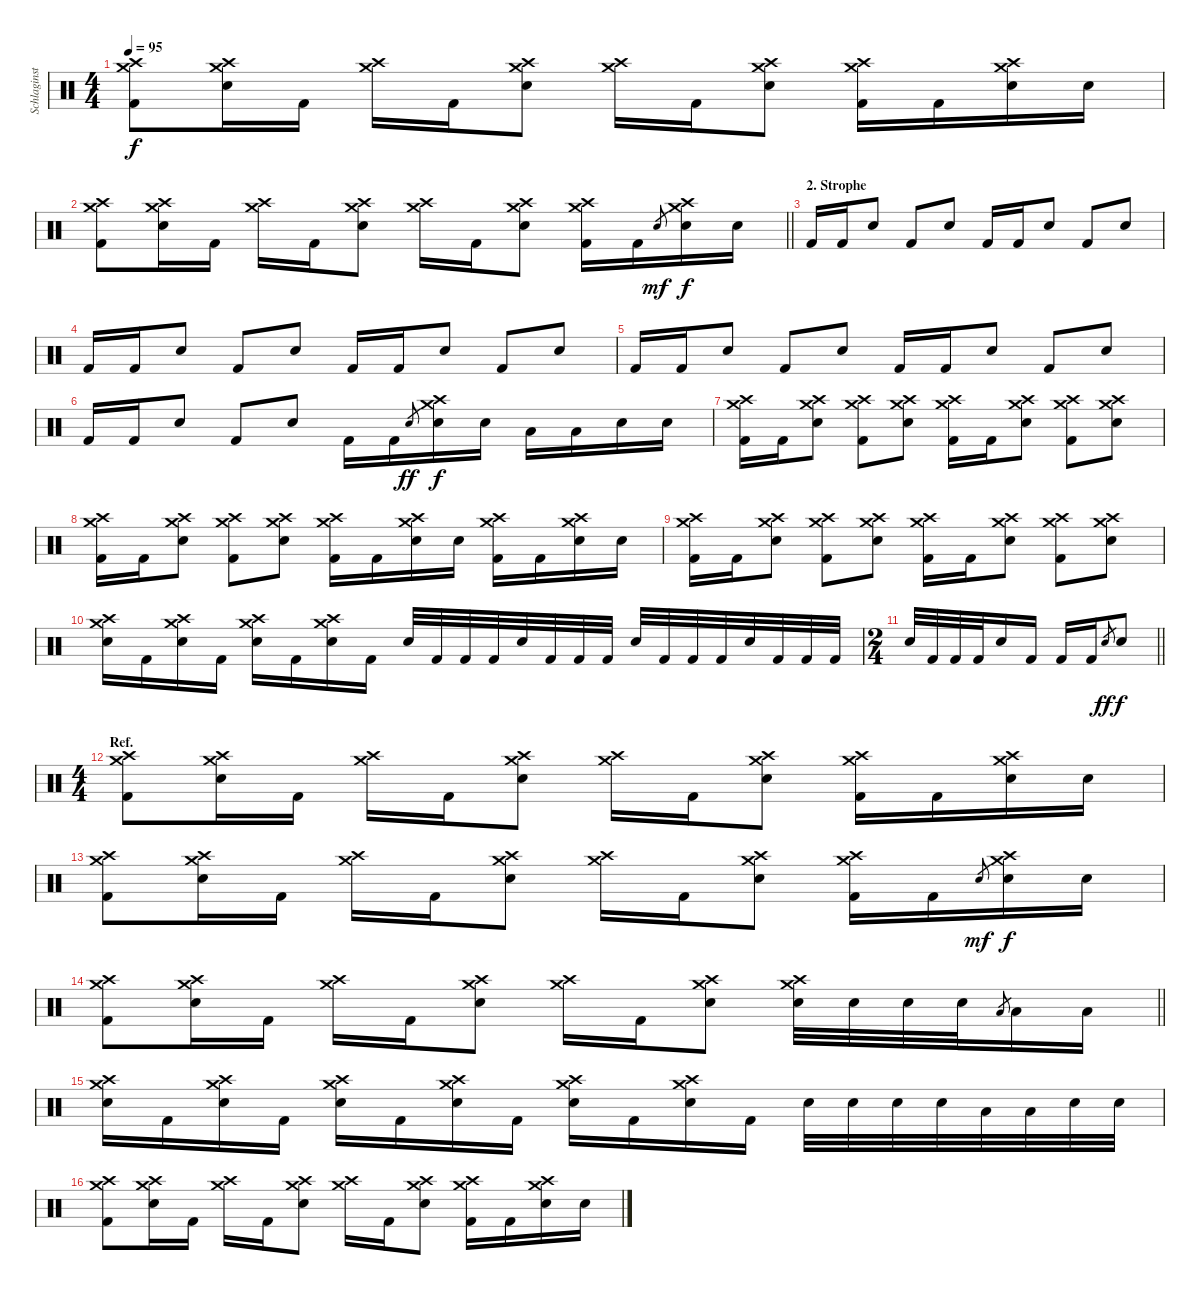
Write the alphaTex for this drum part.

\track ("Schlaginstrumente - Auswahl" "Schlaginst") {instrument percussion}
\staff {score}
\articulation defaults
\ts (4 4)
\tempo 95
\clef neutral
\ks c
("Crash high (hit)" "Crash medium (hit)" "Kick (hit) 2").8{dy f} ("Crash high (hit)" "Crash medium (hit)" "Electric Snare (hit)").16 "Kick (hit) 2".16 ("Crash high (hit)" "Crash medium (hit)").16 "Kick (hit) 2".16 ("Crash high (hit)" "Crash medium (hit)" "Electric Snare (hit)").8 ("Crash high (hit)" "Crash medium (hit)").16 "Kick (hit) 2".16 ("Crash high (hit)" "Crash medium (hit)" "Electric Snare (hit)").8 ("Crash high (hit)" "Crash medium (hit)" "Kick (hit) 2").16 "Kick (hit) 2".16 ("Crash high (hit)" "Crash medium (hit)" "Electric Snare (hit)").16 "Electric Snare (hit)".16 |
\barLineRight lightlight
("Crash high (hit)" "Crash medium (hit)" "Kick (hit) 2").8 ("Crash high (hit)" "Crash medium (hit)" "Electric Snare (hit)").16 "Kick (hit) 2".16 ("Crash high (hit)" "Crash medium (hit)").16 "Kick (hit) 2".16 ("Crash high (hit)" "Crash medium (hit)" "Electric Snare (hit)").8 ("Crash high (hit)" "Crash medium (hit)").16 "Kick (hit) 2".16 ("Crash high (hit)" "Crash medium (hit)" "Electric Snare (hit)").8 ("Crash high (hit)" "Crash medium (hit)" "Kick (hit) 2").16 "Kick (hit) 2".16 "Electric Snare (hit)".8{gr dy mf} ("Crash high (hit)" "Crash medium (hit)" "Electric Snare (hit)").16{dy f} "Electric Snare (hit)".16 |
\section ("" "2. Strophe")
"Kick (hit) 2".16 "Kick (hit) 2".16 "Electric Snare (hit)".8 "Kick (hit) 2".8 "Electric Snare (hit)".8 "Kick (hit) 2".16 "Kick (hit) 2".16 "Electric Snare (hit)".8 "Kick (hit) 2".8 "Electric Snare (hit)".8 |
"Kick (hit) 2".16 "Kick (hit) 2".16 "Electric Snare (hit)".8 "Kick (hit) 2".8 "Electric Snare (hit)".8 "Kick (hit) 2".16 "Kick (hit) 2".16 "Electric Snare (hit)".8 "Kick (hit) 2".8 "Electric Snare (hit)".8 |
"Kick (hit) 2".16 "Kick (hit) 2".16 "Electric Snare (hit)".8 "Kick (hit) 2".8 "Electric Snare (hit)".8 "Kick (hit) 2".16 "Kick (hit) 2".16 "Electric Snare (hit)".8 "Kick (hit) 2".8 "Electric Snare (hit)".8 |
"Kick (hit) 2".16 "Kick (hit) 2".16 "Electric Snare (hit)".8 "Kick (hit) 2".8 "Electric Snare (hit)".8 "Kick (hit) 2".16 "Kick (hit) 2".16 "Electric Snare (hit)".8{gr dy ff} ("Crash high (hit)" "Crash medium (hit)" "Electric Snare (hit)").16{dy f} "Electric Snare (hit)".16 "Low Tom (hit)".16 "Low Tom (hit)".16 "Snare (hit) 2".16 "Snare (hit) 2".16 |
("Crash high (hit)" "Crash medium (hit)" "Kick (hit) 2").16 "Kick (hit) 2".16 ("Crash high (hit)" "Crash medium (hit)" "Electric Snare (hit)").8 ("Crash high (hit)" "Crash medium (hit)" "Kick (hit) 2").8 ("Crash high (hit)" "Crash medium (hit)" "Electric Snare (hit)").8 ("Crash high (hit)" "Crash medium (hit)" "Kick (hit) 2").16 "Kick (hit) 2".16 ("Crash high (hit)" "Crash medium (hit)" "Electric Snare (hit)").8 ("Crash high (hit)" "Crash medium (hit)" "Kick (hit) 2").8 ("Crash high (hit)" "Crash medium (hit)" "Electric Snare (hit)").8 |
("Crash high (hit)" "Crash medium (hit)" "Kick (hit) 2").16 "Kick (hit) 2".16 ("Crash high (hit)" "Crash medium (hit)" "Electric Snare (hit)").8 ("Crash high (hit)" "Crash medium (hit)" "Kick (hit) 2").8 ("Crash high (hit)" "Crash medium (hit)" "Electric Snare (hit)").8 ("Crash high (hit)" "Crash medium (hit)" "Kick (hit) 2").16 "Kick (hit) 2".16 ("Crash high (hit)" "Crash medium (hit)" "Electric Snare (hit)").16 "Electric Snare (hit)".16 ("Crash high (hit)" "Crash medium (hit)" "Kick (hit) 2").16 "Kick (hit) 2".16 ("Crash high (hit)" "Crash medium (hit)" "Electric Snare (hit)").16 "Electric Snare (hit)".16 |
("Crash high (hit)" "Crash medium (hit)" "Kick (hit) 2").16 "Kick (hit) 2".16 ("Crash high (hit)" "Crash medium (hit)" "Electric Snare (hit)").8 ("Crash high (hit)" "Crash medium (hit)" "Kick (hit) 2").8 ("Crash high (hit)" "Crash medium (hit)" "Electric Snare (hit)").8 ("Crash high (hit)" "Crash medium (hit)" "Kick (hit) 2").16 "Kick (hit) 2".16 ("Crash high (hit)" "Crash medium (hit)" "Electric Snare (hit)").8 ("Crash high (hit)" "Crash medium (hit)" "Kick (hit) 2").8 ("Crash high (hit)" "Crash medium (hit)" "Electric Snare (hit)").8 |
("Crash high (hit)" "Crash medium (hit)" "Electric Snare (hit)").16 "Kick (hit) 2".16 ("Crash high (hit)" "Crash medium (hit)" "Electric Snare (hit)").16 "Kick (hit) 2".16 ("Crash high (hit)" "Crash medium (hit)" "Electric Snare (hit)").16 "Kick (hit) 2".16 ("Crash high (hit)" "Crash medium (hit)" "Electric Snare (hit)").16 "Kick (hit) 2".16 "Electric Snare (hit)".32 "Kick (hit) 2".32 "Kick (hit) 2".32 "Kick (hit) 2".32 "Electric Snare (hit)".32 "Kick (hit) 2".32 "Kick (hit) 2".32 "Kick (hit) 2".32 "Electric Snare (hit)".32 "Kick (hit) 2".32 "Kick (hit) 2".32 "Kick (hit) 2".32 "Electric Snare (hit)".32 "Kick (hit) 2".32 "Kick (hit) 2".32 "Kick (hit) 2".32 |
\ts (2 4)
\barLineRight lightlight "Electric Snare (hit)".32 "Kick (hit) 2".32 "Kick (hit) 2".32 "Kick (hit) 2".32 "Electric Snare (hit)".16 "Kick (hit) 2".16 "Kick (hit) 2".16 "Kick (hit) 2".16 "Electric Snare (hit)".8{gr dy ff} "Electric Snare (hit)".8{dy f}
|
\ts (4 4)
\section ("" "Ref.")
("Crash high (hit)" "Crash medium (hit)" "Kick (hit) 2").8 ("Crash high (hit)" "Crash medium (hit)" "Electric Snare (hit)").16 "Kick (hit) 2".16 ("Crash high (hit)" "Crash medium (hit)").16 "Kick (hit) 2".16 ("Crash high (hit)" "Crash medium (hit)" "Electric Snare (hit)").8 ("Crash high (hit)" "Crash medium (hit)").16 "Kick (hit) 2".16 ("Crash high (hit)" "Crash medium (hit)" "Electric Snare (hit)").8 ("Crash high (hit)" "Crash medium (hit)" "Kick (hit) 2").16 "Kick (hit) 2".16 ("Crash high (hit)" "Crash medium (hit)" "Electric Snare (hit)").16 "Electric Snare (hit)".16 |
("Crash high (hit)" "Crash medium (hit)" "Kick (hit) 2").8 ("Crash high (hit)" "Crash medium (hit)" "Electric Snare (hit)").16 "Kick (hit) 2".16 ("Crash high (hit)" "Crash medium (hit)").16 "Kick (hit) 2".16 ("Crash high (hit)" "Crash medium (hit)" "Electric Snare (hit)").8 ("Crash high (hit)" "Crash medium (hit)").16 "Kick (hit) 2".16 ("Crash high (hit)" "Crash medium (hit)" "Electric Snare (hit)").8 ("Crash high (hit)" "Crash medium (hit)" "Kick (hit) 2").16 "Kick (hit) 2".16 "Electric Snare (hit)".8{gr dy mf} ("Crash high (hit)" "Crash medium (hit)" "Electric Snare (hit)").16{dy f} "Electric Snare (hit)".16 |
\barLineRight lightlight
("Crash high (hit)" "Crash medium (hit)" "Kick (hit) 2").8 ("Crash high (hit)" "Crash medium (hit)" "Electric Snare (hit)").16 "Kick (hit) 2".16 ("Crash high (hit)" "Crash medium (hit)").16 "Kick (hit) 2".16 ("Crash high (hit)" "Crash medium (hit)" "Electric Snare (hit)").8 ("Crash high (hit)" "Crash medium (hit)").16 "Kick (hit) 2".16 ("Crash high (hit)" "Crash medium (hit)" "Electric Snare (hit)").8 ("Crash high (hit)" "Crash medium (hit)" "Electric Snare (hit)").32 "Electric Snare (hit)".32 "Electric Snare (hit)".32 "Electric Snare (hit)".32 "Low Tom (hit)".8{gr} "Low Tom (hit)".16 "Low Tom (hit)".16 |
("Crash high (hit)" "Crash medium (hit)" "Electric Snare (hit)").16 "Kick (hit) 2".16 ("Crash high (hit)" "Crash medium (hit)" "Electric Snare (hit)").16 "Kick (hit) 2".16 ("Crash high (hit)" "Crash medium (hit)" "Electric Snare (hit)").16 "Kick (hit) 2".16 ("Crash high (hit)" "Crash medium (hit)" "Electric Snare (hit)").16 "Kick (hit) 2".16 ("Crash high (hit)" "Crash medium (hit)" "Electric Snare (hit)").16 "Kick (hit) 2".16 ("Crash high (hit)" "Crash medium (hit)" "Electric Snare (hit)").16 "Kick (hit) 2".16 "Electric Snare (hit)".32 "Electric Snare (hit)".32 "Electric Snare (hit)".32 "Electric Snare (hit)".32 "Low Tom (hit)".32 "Low Tom (hit)".32 "Snare (hit) 2".32 "Snare (hit) 2".32 |
("Crash high (hit)" "Crash medium (hit)" "Kick (hit) 2").8 ("Crash high (hit)" "Crash medium (hit)" "Electric Snare (hit)").16 "Kick (hit) 2".16 ("Crash high (hit)" "Crash medium (hit)").16 "Kick (hit) 2".16 ("Crash high (hit)" "Crash medium (hit)" "Electric Snare (hit)").8 ("Crash high (hit)" "Crash medium (hit)").16 "Kick (hit) 2".16 ("Crash high (hit)" "Crash medium (hit)" "Electric Snare (hit)").8 ("Crash high (hit)" "Crash medium (hit)" "Kick (hit) 2").16 "Kick (hit) 2".16 ("Crash high (hit)" "Crash medium (hit)" "Electric Snare (hit)").16 "Electric Snare (hit)".16
